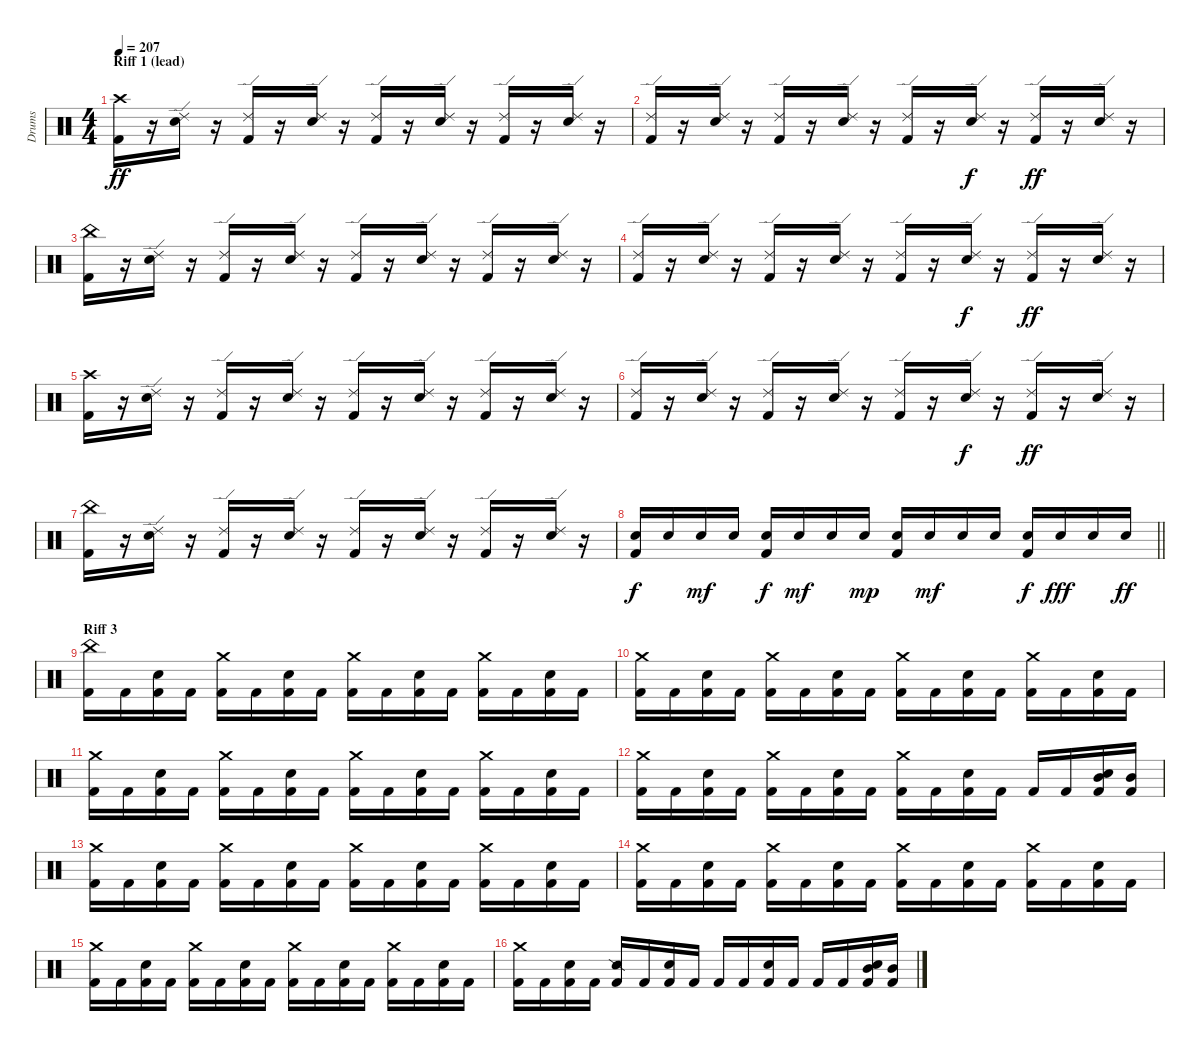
\track ("Drums" "Drums") {instrument percussion}
\staff {score}
\articulation defaults
\ts (4 4)
\section ("" "Riff 1 (lead)")
\tempo 207
\clef neutral
\ks c
("Kick (hit) 2" "Crash high (hit)").16{dy ff} r.16 ("Snare (hit) 2" "Ride (edge) 2").16 r.16 ("Kick (hit) 2" "Ride (edge) 2").16 r.16 ("Snare (hit) 2" "Ride (edge) 2").16 r.16 ("Kick (hit) 2" "Ride (edge) 2").16 r.16 ("Snare (hit) 2" "Ride (edge) 2").16 r.16 ("Kick (hit) 2" "Ride (edge) 2").16 r.16 ("Snare (hit) 2" "Ride (edge) 2").16 r.16 |
("Kick (hit) 2" "Ride (edge) 2").16 r.16 ("Snare (hit) 2" "Ride (edge) 2").16 r.16 ("Kick (hit) 2" "Ride (edge) 2").16 r.16 ("Snare (hit) 2" "Ride (edge) 2").16 r.16 ("Kick (hit) 2" "Ride (edge) 2").16 r.16 ("Snare (hit) 2" "Ride (edge) 2").16{dy f} r.16 ("Kick (hit) 2" "Ride (edge) 2").16{dy ff} r.16 ("Snare (hit) 2" "Ride (edge) 2").16 r.16 |
("Kick (hit) 2" "China (hit)").16 r.16 ("Snare (hit) 2" "Ride (edge) 2").16 r.16 ("Kick (hit) 2" "Ride (edge) 2").16 r.16 ("Snare (hit) 2" "Ride (edge) 2").16 r.16 ("Kick (hit) 2" "Ride (edge) 2").16 r.16 ("Snare (hit) 2" "Ride (edge) 2").16 r.16 ("Kick (hit) 2" "Ride (edge) 2").16 r.16 ("Snare (hit) 2" "Ride (edge) 2").16 r.16 |
("Kick (hit) 2" "Ride (edge) 2").16 r.16 ("Snare (hit) 2" "Ride (edge) 2").16 r.16 ("Kick (hit) 2" "Ride (edge) 2").16 r.16 ("Snare (hit) 2" "Ride (edge) 2").16 r.16 ("Kick (hit) 2" "Ride (edge) 2").16 r.16 ("Snare (hit) 2" "Ride (edge) 2").16{dy f} r.16 ("Kick (hit) 2" "Ride (edge) 2").16{dy ff} r.16 ("Snare (hit) 2" "Ride (edge) 2").16 r.16 |
("Kick (hit) 2" "Crash high (hit)").16 r.16 ("Snare (hit) 2" "Ride (edge) 2").16 r.16 ("Kick (hit) 2" "Ride (edge) 2").16 r.16 ("Snare (hit) 2" "Ride (edge) 2").16 r.16 ("Kick (hit) 2" "Ride (edge) 2").16 r.16 ("Snare (hit) 2" "Ride (edge) 2").16 r.16 ("Kick (hit) 2" "Ride (edge) 2").16 r.16 ("Snare (hit) 2" "Ride (edge) 2").16 r.16 |
("Kick (hit) 2" "Ride (edge) 2").16 r.16 ("Snare (hit) 2" "Ride (edge) 2").16 r.16 ("Kick (hit) 2" "Ride (edge) 2").16 r.16 ("Snare (hit) 2" "Ride (edge) 2").16 r.16 ("Kick (hit) 2" "Ride (edge) 2").16 r.16 ("Snare (hit) 2" "Ride (edge) 2").16{dy f} r.16 ("Kick (hit) 2" "Ride (edge) 2").16{dy ff} r.16 ("Snare (hit) 2" "Ride (edge) 2").16 r.16 |
("Kick (hit) 2" "China (hit)").16 r.16 ("Snare (hit) 2" "Ride (edge) 2").16 r.16 ("Kick (hit) 2" "Ride (edge) 2").16 r.16 ("Snare (hit) 2" "Ride (edge) 2").16 r.16 ("Kick (hit) 2" "Ride (edge) 2").16 r.16 ("Snare (hit) 2" "Ride (edge) 2").16 r.16 ("Kick (hit) 2" "Ride (edge) 2").16 r.16 ("Snare (hit) 2" "Ride (edge) 2").16 r.16 |
\barLineRight lightlight
("Kick (hit) 2" "Snare (hit) 2").16{dy f} "Snare (hit) 2".16 "Snare (hit) 2".16{dy mf} "Snare (hit) 2".16 ("Kick (hit) 2" "Snare (hit) 2").16{dy f} "Snare (hit) 2".16{dy mf} "Snare (hit) 2".16 "Snare (hit) 2".16{dy mp} ("Kick (hit) 2" "Snare (hit) 2").16 "Snare (hit) 2".16{dy mf} "Snare (hit) 2".16 "Snare (hit) 2".16 ("Kick (hit) 2" "Snare (hit) 2").16{dy f} "Snare (hit) 2".16{dy fff} "Snare (hit) 2".16 "Snare (hit) 2".16{dy ff} |
\section ("" "Riff 3")
("Kick (hit) 2" "China (hit)").16 "Kick (hit) 2".16 ("Kick (hit) 2" "Snare (hit) 2").16 "Kick (hit) 2".16 ("Kick (hit) 2" "Crash medium (hit)").16 "Kick (hit) 2".16 ("Kick (hit) 2" "Snare (hit) 2").16 "Kick (hit) 2".16 ("Kick (hit) 2" "Crash medium (hit)").16 "Kick (hit) 2".16 ("Kick (hit) 2" "Snare (hit) 2").16 "Kick (hit) 2".16 ("Kick (hit) 2" "Crash medium (hit)").16 "Kick (hit) 2".16 ("Kick (hit) 2" "Snare (hit) 2").16 "Kick (hit) 2".16 |
("Kick (hit) 2" "Crash medium (hit)").16 "Kick (hit) 2".16 ("Kick (hit) 2" "Snare (hit) 2").16 "Kick (hit) 2".16 ("Kick (hit) 2" "Crash medium (hit)").16 "Kick (hit) 2".16 ("Kick (hit) 2" "Snare (hit) 2").16 "Kick (hit) 2".16 ("Kick (hit) 2" "Crash medium (hit)").16 "Kick (hit) 2".16 ("Kick (hit) 2" "Snare (hit) 2").16 "Kick (hit) 2".16 ("Kick (hit) 2" "Crash medium (hit)").16 "Kick (hit) 2".16 ("Kick (hit) 2" "Snare (hit) 2").16 "Kick (hit) 2".16 |
("Kick (hit) 2" "Crash medium (hit)").16 "Kick (hit) 2".16 ("Kick (hit) 2" "Snare (hit) 2").16 "Kick (hit) 2".16 ("Kick (hit) 2" "Crash medium (hit)").16 "Kick (hit) 2".16 ("Kick (hit) 2" "Snare (hit) 2").16 "Kick (hit) 2".16 ("Kick (hit) 2" "Crash medium (hit)").16 "Kick (hit) 2".16 ("Kick (hit) 2" "Snare (hit) 2").16 "Kick (hit) 2".16 ("Kick (hit) 2" "Crash medium (hit)").16 "Kick (hit) 2".16 ("Kick (hit) 2" "Snare (hit) 2").16 "Kick (hit) 2".16 |
("Kick (hit) 2" "Crash medium (hit)").16 "Kick (hit) 2".16 ("Kick (hit) 2" "Snare (hit) 2").16 "Kick (hit) 2".16 ("Kick (hit) 2" "Crash medium (hit)").16 "Kick (hit) 2".16 ("Kick (hit) 2" "Snare (hit) 2").16 "Kick (hit) 2".16 ("Kick (hit) 2" "Crash medium (hit)").16 "Kick (hit) 2".16 ("Kick (hit) 2" "Snare (hit) 2").16 "Kick (hit) 2".16 "Kick (hit) 2".16 "Kick (hit) 2".16 ("Kick (hit) 2" "Snare (hit) 2" "Mid Tom (hit)").16 ("Kick (hit) 2" "Mid Tom (hit)").16 |
("Kick (hit) 2" "Crash medium (hit)").16 "Kick (hit) 2".16 ("Kick (hit) 2" "Snare (hit) 2").16 "Kick (hit) 2".16 ("Kick (hit) 2" "Crash medium (hit)").16 "Kick (hit) 2".16 ("Kick (hit) 2" "Snare (hit) 2").16 "Kick (hit) 2".16 ("Kick (hit) 2" "Crash medium (hit)").16 "Kick (hit) 2".16 ("Kick (hit) 2" "Snare (hit) 2").16 "Kick (hit) 2".16 ("Kick (hit) 2" "Crash medium (hit)").16 "Kick (hit) 2".16 ("Kick (hit) 2" "Snare (hit) 2").16 "Kick (hit) 2".16 |
("Kick (hit) 2" "Crash medium (hit)").16 "Kick (hit) 2".16 ("Kick (hit) 2" "Snare (hit) 2").16 "Kick (hit) 2".16 ("Kick (hit) 2" "Crash medium (hit)").16 "Kick (hit) 2".16 ("Kick (hit) 2" "Snare (hit) 2").16 "Kick (hit) 2".16 ("Kick (hit) 2" "Crash medium (hit)").16 "Kick (hit) 2".16 ("Kick (hit) 2" "Snare (hit) 2").16 "Kick (hit) 2".16 ("Kick (hit) 2" "Crash medium (hit)").16 "Kick (hit) 2".16 ("Kick (hit) 2" "Snare (hit) 2").16 "Kick (hit) 2".16 |
("Kick (hit) 2" "Crash medium (hit)").16 "Kick (hit) 2".16 ("Kick (hit) 2" "Snare (hit) 2").16 "Kick (hit) 2".16 ("Kick (hit) 2" "Crash medium (hit)").16 "Kick (hit) 2".16 ("Kick (hit) 2" "Snare (hit) 2").16 "Kick (hit) 2".16 ("Kick (hit) 2" "Crash medium (hit)").16 "Kick (hit) 2".16 ("Kick (hit) 2" "Snare (hit) 2").16 "Kick (hit) 2".16 ("Kick (hit) 2" "Crash medium (hit)").16 "Kick (hit) 2".16 ("Kick (hit) 2" "Snare (hit) 2").16 "Kick (hit) 2".16 |
("Kick (hit) 2" "Crash medium (hit)").16 "Kick (hit) 2".16 ("Kick (hit) 2" "Snare (hit) 2").16 "Kick (hit) 2".16 ("Kick (hit) 2" "Snare (side stick) 2").16 "Kick (hit) 2".16 ("Kick (hit) 2" "Snare (hit) 2").16 "Kick (hit) 2".16 "Kick (hit) 2".16 "Kick (hit) 2".16 ("Kick (hit) 2" "Snare (hit) 2").16 "Kick (hit) 2".16 "Kick (hit) 2".16 "Kick (hit) 2".16 ("Kick (hit) 2" "Snare (hit) 2" "Mid Tom (hit)").16 ("Kick (hit) 2" "Mid Tom (hit)").16
